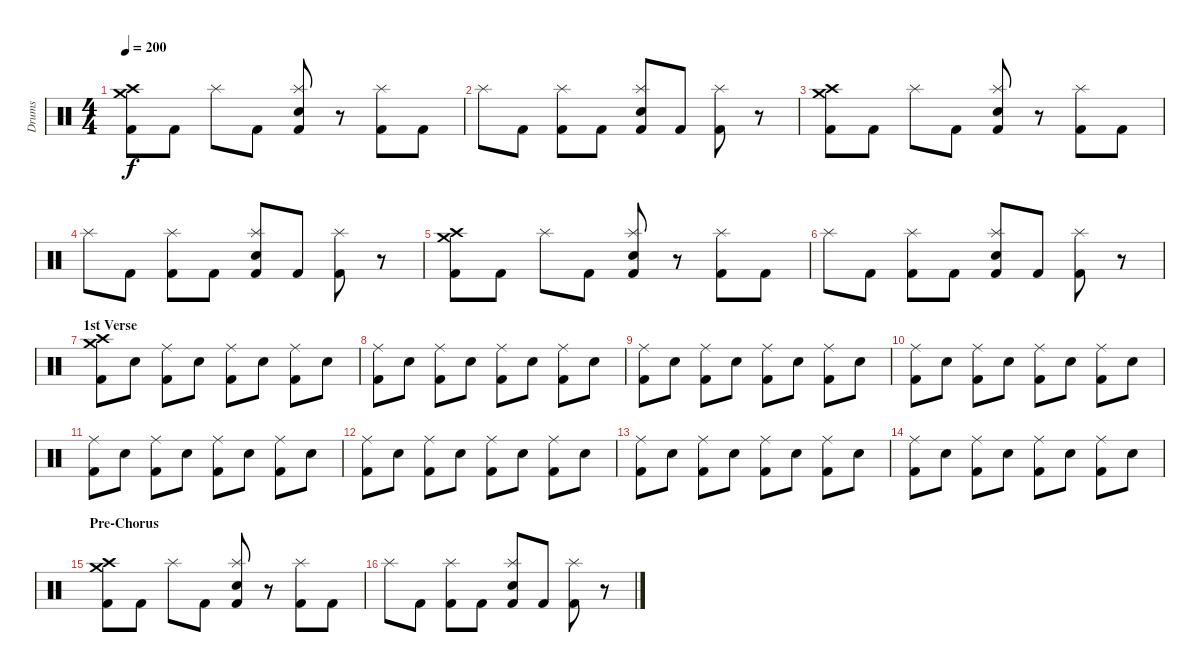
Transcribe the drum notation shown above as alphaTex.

\track ("Drums" "Drums") {instrument percussion}
\staff {score}
\articulation defaults
\ts (4 4)
\tempo 200
\clef neutral
\ks c
("Crash medium (hit)" "Crash high (hit)" "Kick (hit) 2").8{dy f} "Kick (hit) 2".8 "Splash (hit)".8 "Kick (hit) 2".8 ("Splash (hit)" "Snare (hit) 2" "Kick (hit) 2").8 r.8 ("Splash (hit)" "Kick (hit) 2").8 "Kick (hit) 2".8 |
"Splash (hit)".8 "Kick (hit) 2".8 ("Splash (hit)" "Kick (hit) 2").8 "Kick (hit) 2".8 ("Splash (hit)" "Snare (hit) 2" "Kick (hit) 2").8 "Kick (hit) 2".8 ("Splash (hit)" "Kick (hit) 2").8 r.8 |
("Crash medium (hit)" "Crash high (hit)" "Kick (hit) 2").8 "Kick (hit) 2".8 "Splash (hit)".8 "Kick (hit) 2".8 ("Splash (hit)" "Snare (hit) 2" "Kick (hit) 2").8 r.8 ("Splash (hit)" "Kick (hit) 2").8 "Kick (hit) 2".8 |
"Splash (hit)".8 "Kick (hit) 2".8 ("Splash (hit)" "Kick (hit) 2").8 "Kick (hit) 2".8 ("Splash (hit)" "Snare (hit) 2" "Kick (hit) 2").8 "Kick (hit) 2".8 ("Splash (hit)" "Kick (hit) 2").8 r.8 |
("Crash medium (hit)" "Crash high (hit)" "Kick (hit) 2").8 "Kick (hit) 2".8 "Splash (hit)".8 "Kick (hit) 2".8 ("Splash (hit)" "Snare (hit) 2" "Kick (hit) 2").8 r.8 ("Splash (hit)" "Kick (hit) 2").8 "Kick (hit) 2".8 |
"Splash (hit)".8 "Kick (hit) 2".8 ("Splash (hit)" "Kick (hit) 2").8 "Kick (hit) 2".8 ("Splash (hit)" "Snare (hit) 2" "Kick (hit) 2").8 "Kick (hit) 2".8 ("Splash (hit)" "Kick (hit) 2").8 r.8 |
\section ("" "1st Verse")
("Crash medium (hit)" "Crash high (hit)" "Kick (hit) 2").8 "Snare (hit) 2".8 ("Ride (middle)" "Kick (hit) 2").8 "Snare (hit) 2".8 ("Ride (middle)" "Kick (hit) 2").8 "Snare (hit) 2".8 ("Ride (middle)" "Kick (hit) 2").8 "Snare (hit) 2".8 |
("Ride (middle)" "Kick (hit) 2").8 "Snare (hit) 2".8 ("Ride (middle)" "Kick (hit) 2").8 "Snare (hit) 2".8 ("Ride (middle)" "Kick (hit) 2").8 "Snare (hit) 2".8 ("Ride (middle)" "Kick (hit) 2").8 "Snare (hit) 2".8 |
("Ride (middle)" "Kick (hit) 2").8 "Snare (hit) 2".8 ("Ride (middle)" "Kick (hit) 2").8 "Snare (hit) 2".8 ("Ride (middle)" "Kick (hit) 2").8 "Snare (hit) 2".8 ("Ride (middle)" "Kick (hit) 2").8 "Snare (hit) 2".8 |
("Ride (middle)" "Kick (hit) 2").8 "Snare (hit) 2".8 ("Ride (middle)" "Kick (hit) 2").8 "Snare (hit) 2".8 ("Ride (middle)" "Kick (hit) 2").8 "Snare (hit) 2".8 ("Ride (middle)" "Kick (hit) 2").8 "Snare (hit) 2".8 |
("Ride (middle)" "Kick (hit) 2").8 "Snare (hit) 2".8 ("Ride (middle)" "Kick (hit) 2").8 "Snare (hit) 2".8 ("Ride (middle)" "Kick (hit) 2").8 "Snare (hit) 2".8 ("Ride (middle)" "Kick (hit) 2").8 "Snare (hit) 2".8 |
("Ride (middle)" "Kick (hit) 2").8 "Snare (hit) 2".8 ("Ride (middle)" "Kick (hit) 2").8 "Snare (hit) 2".8 ("Ride (middle)" "Kick (hit) 2").8 "Snare (hit) 2".8 ("Ride (middle)" "Kick (hit) 2").8 "Snare (hit) 2".8 |
("Ride (middle)" "Kick (hit) 2").8 "Snare (hit) 2".8 ("Ride (middle)" "Kick (hit) 2").8 "Snare (hit) 2".8 ("Ride (middle)" "Kick (hit) 2").8 "Snare (hit) 2".8 ("Ride (middle)" "Kick (hit) 2").8 "Snare (hit) 2".8 |
("Ride (middle)" "Kick (hit) 2").8 "Snare (hit) 2".8 ("Ride (middle)" "Kick (hit) 2").8 "Snare (hit) 2".8 ("Ride (middle)" "Kick (hit) 2").8 "Snare (hit) 2".8 ("Ride (middle)" "Kick (hit) 2").8 "Snare (hit) 2".8 |
\section ("" "Pre-Chorus")
("Crash medium (hit)" "Crash high (hit)" "Kick (hit) 2").8 "Kick (hit) 2".8 "Splash (hit)".8 "Kick (hit) 2".8 ("Splash (hit)" "Snare (hit) 2" "Kick (hit) 2").8 r.8 ("Splash (hit)" "Kick (hit) 2").8 "Kick (hit) 2".8 |
"Splash (hit)".8 "Kick (hit) 2".8 ("Splash (hit)" "Kick (hit) 2").8 "Kick (hit) 2".8 ("Splash (hit)" "Snare (hit) 2" "Kick (hit) 2").8 "Kick (hit) 2".8 ("Splash (hit)" "Kick (hit) 2").8 r.8
